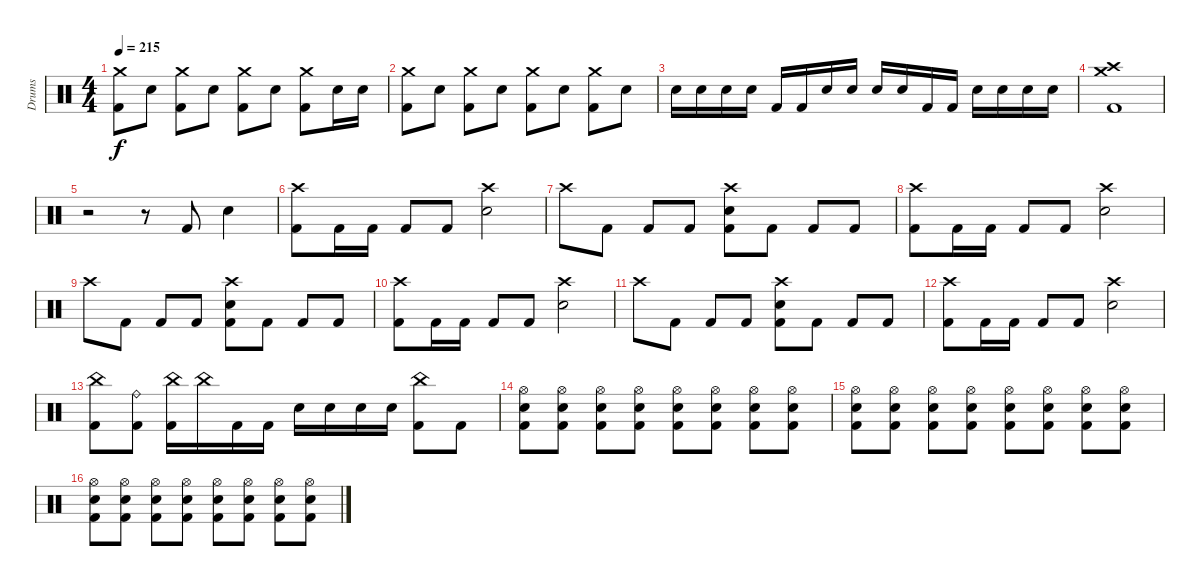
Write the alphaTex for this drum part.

\track ("Drums" "Drums") {instrument percussion}
\staff {score}
\articulation defaults
\ts (4 4)
\tempo 215
\clef neutral
\ks c
("Crash medium (hit)" "Kick (hit) 2").8{dy f} "Electric Snare (hit)".8 ("Crash medium (hit)" "Kick (hit) 2").8 "Electric Snare (hit)".8 ("Crash medium (hit)" "Kick (hit) 2").8 "Electric Snare (hit)".8 ("Crash medium (hit)" "Kick (hit) 2").8 "Electric Snare (hit)".16 "Electric Snare (hit)".16 |
("Crash medium (hit)" "Kick (hit) 2").8 "Electric Snare (hit)".8 ("Crash medium (hit)" "Kick (hit) 2").8 "Electric Snare (hit)".8 ("Crash medium (hit)" "Kick (hit) 2").8 "Electric Snare (hit)".8 ("Crash medium (hit)" "Kick (hit) 2").8 "Electric Snare (hit)".8 |
"Electric Snare (hit)".16 "Electric Snare (hit)".16 "Electric Snare (hit)".16 "Electric Snare (hit)".16 "Kick (hit) 2".16 "Kick (hit) 2".16 "Electric Snare (hit)".16 "Electric Snare (hit)".16 "Electric Snare (hit)".16 "Electric Snare (hit)".16 "Kick (hit) 2".16 "Kick (hit) 2".16 "Electric Snare (hit)".16 "Electric Snare (hit)".16 "Electric Snare (hit)".16 "Electric Snare (hit)".16 |
("Crash medium (hit)" "Crash high (hit)" "Kick (hit) 2").1 |
r.2 r.8 "Kick (hit) 2".8 "Electric Snare (hit)".4 |
("Crash high (hit)" "Kick (hit) 2").8 "Kick (hit) 2".16 "Kick (hit) 2".16 "Kick (hit) 2".8 "Kick (hit) 2".8 ("Crash high (hit)" "Electric Snare (hit)").2 |
"Crash high (hit)".8 "Kick (hit) 2".8 "Kick (hit) 2".8 "Kick (hit) 2".8 ("Crash high (hit)" "Electric Snare (hit)" "Kick (hit) 2").8 "Kick (hit) 2".8 "Kick (hit) 2".8 "Kick (hit) 2".8 |
("Crash high (hit)" "Kick (hit) 2").8 "Kick (hit) 2".16 "Kick (hit) 2".16 "Kick (hit) 2".8 "Kick (hit) 2".8 ("Crash high (hit)" "Electric Snare (hit)").2 |
"Crash high (hit)".8 "Kick (hit) 2".8 "Kick (hit) 2".8 "Kick (hit) 2".8 ("Crash high (hit)" "Electric Snare (hit)" "Kick (hit) 2").8 "Kick (hit) 2".8 "Kick (hit) 2".8 "Kick (hit) 2".8 |
("Crash high (hit)" "Kick (hit) 2").8 "Kick (hit) 2".16 "Kick (hit) 2".16 "Kick (hit) 2".8 "Kick (hit) 2".8 ("Crash high (hit)" "Electric Snare (hit)").2 |
"Crash high (hit)".8 "Kick (hit) 2".8 "Kick (hit) 2".8 "Kick (hit) 2".8 ("Crash high (hit)" "Electric Snare (hit)" "Kick (hit) 2").8 "Kick (hit) 2".8 "Kick (hit) 2".8 "Kick (hit) 2".8 |
("Crash high (hit)" "Kick (hit) 2").8 "Kick (hit) 2".16 "Kick (hit) 2".16 "Kick (hit) 2".8 "Kick (hit) 2".8 ("Crash high (hit)" "Electric Snare (hit)").2 |
("China (hit)" "Kick (hit) 2").8 ("Ride (bell)" "Kick (hit) 2").8 ("China (hit)" "Kick (hit) 2").16 "China (hit)".16 "Kick (hit) 2".16 "Kick (hit) 2".16 "Electric Snare (hit)".16 "Electric Snare (hit)".16 "Electric Snare (hit)".16 "Electric Snare (hit)".16 ("China (hit)" "Kick (hit) 2").8 "Kick (hit) 2".8 |
("Hi-Hat (open)" "Electric Snare (hit)" "Kick (hit) 2").8 ("Hi-Hat (open)" "Electric Snare (hit)" "Kick (hit) 2").8 ("Hi-Hat (open)" "Electric Snare (hit)" "Kick (hit) 2").8 ("Hi-Hat (open)" "Electric Snare (hit)" "Kick (hit) 2").8 ("Hi-Hat (open)" "Electric Snare (hit)" "Kick (hit) 2").8 ("Hi-Hat (open)" "Electric Snare (hit)" "Kick (hit) 2").8 ("Hi-Hat (open)" "Electric Snare (hit)" "Kick (hit) 2").8 ("Hi-Hat (open)" "Electric Snare (hit)" "Kick (hit) 2").8 |
("Hi-Hat (open)" "Electric Snare (hit)" "Kick (hit) 2").8 ("Hi-Hat (open)" "Electric Snare (hit)" "Kick (hit) 2").8 ("Hi-Hat (open)" "Electric Snare (hit)" "Kick (hit) 2").8 ("Hi-Hat (open)" "Electric Snare (hit)" "Kick (hit) 2").8 ("Hi-Hat (open)" "Electric Snare (hit)" "Kick (hit) 2").8 ("Hi-Hat (open)" "Electric Snare (hit)" "Kick (hit) 2").8 ("Hi-Hat (open)" "Electric Snare (hit)" "Kick (hit) 2").8 ("Hi-Hat (open)" "Electric Snare (hit)" "Kick (hit) 2").8 |
("Hi-Hat (open)" "Electric Snare (hit)" "Kick (hit) 2").8 ("Hi-Hat (open)" "Electric Snare (hit)" "Kick (hit) 2").8 ("Hi-Hat (open)" "Electric Snare (hit)" "Kick (hit) 2").8 ("Hi-Hat (open)" "Electric Snare (hit)" "Kick (hit) 2").8 ("Hi-Hat (open)" "Electric Snare (hit)" "Kick (hit) 2").8 ("Hi-Hat (open)" "Electric Snare (hit)" "Kick (hit) 2").8 ("Hi-Hat (open)" "Electric Snare (hit)" "Kick (hit) 2").8 ("Hi-Hat (open)" "Electric Snare (hit)" "Kick (hit) 2").8
